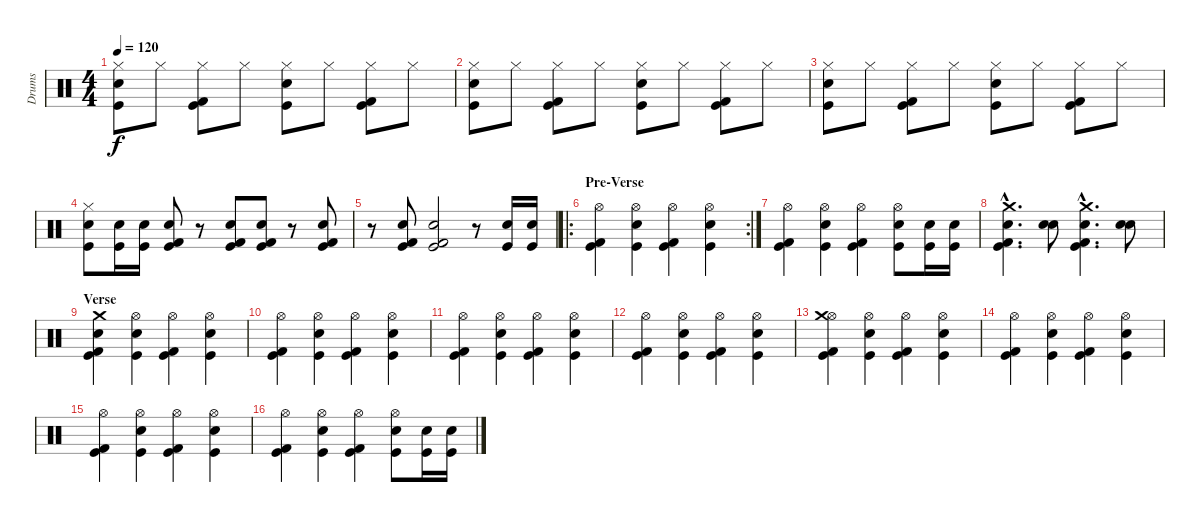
\track ("Drums" "Drums") {instrument percussion}
\staff {score}
\articulation defaults
\ts (4 4)
\tempo 120
\clef neutral
\ks c
("Hi-Hat (closed)" "Kick (hit)" "Snare (hit) 2").8{dy f} "Hi-Hat (closed)".8 ("Hi-Hat (closed)" "Kick (hit)" "Kick (hit) 2").8 "Hi-Hat (closed)".8 ("Hi-Hat (closed)" "Kick (hit)" "Snare (hit) 2").8 "Hi-Hat (closed)".8 ("Hi-Hat (closed)" "Kick (hit)" "Kick (hit) 2").8 "Hi-Hat (closed)".8 |
("Hi-Hat (closed)" "Kick (hit)" "Snare (hit) 2").8 "Hi-Hat (closed)".8 ("Hi-Hat (closed)" "Kick (hit)" "Kick (hit) 2").8 "Hi-Hat (closed)".8 ("Hi-Hat (closed)" "Kick (hit)" "Snare (hit) 2").8 "Hi-Hat (closed)".8 ("Hi-Hat (closed)" "Kick (hit)" "Kick (hit) 2").8 "Hi-Hat (closed)".8 |
("Hi-Hat (closed)" "Kick (hit)" "Snare (hit) 2").8 "Hi-Hat (closed)".8 ("Hi-Hat (closed)" "Kick (hit)" "Kick (hit) 2").8 "Hi-Hat (closed)".8 ("Hi-Hat (closed)" "Kick (hit)" "Snare (hit) 2").8 "Hi-Hat (closed)".8 ("Hi-Hat (closed)" "Kick (hit)" "Kick (hit) 2").8 "Hi-Hat (closed)".8 |
("Hi-Hat (closed)" "Kick (hit)" "Snare (hit) 2").8 ("Kick (hit)" "Snare (hit) 2").16 ("Kick (hit)" "Snare (hit) 2").16 ("Kick (hit)" "Kick (hit) 2" "Snare (hit) 2").8 r.8 ("Kick (hit)" "Kick (hit) 2" "Snare (hit) 2").8 ("Kick (hit)" "Kick (hit) 2" "Snare (hit) 2").8 r.8 ("Kick (hit)" "Kick (hit) 2" "Snare (hit) 2").8 |
r.8 ("Kick (hit)" "Kick (hit) 2" "Snare (hit) 2").8 ("Kick (hit)" "Kick (hit) 2" "Snare (hit) 2").2 r.8 ("Kick (hit)" "Snare (hit) 2").16 ("Kick (hit)" "Snare (hit) 2").16 |
\ro
\rc 2
\section ("" "Pre-Verse")
("Hi-Hat (open)" "Kick (hit)" "Kick (hit) 2").4 ("Hi-Hat (open)" "Kick (hit)" "Snare (hit) 2").4 ("Hi-Hat (open)" "Kick (hit)" "Kick (hit) 2").4 ("Hi-Hat (open)" "Kick (hit)" "Snare (hit) 2").4 |
("Hi-Hat (open)" "Kick (hit)" "Kick (hit) 2").4 ("Hi-Hat (open)" "Kick (hit)" "Snare (hit) 2").4 ("Hi-Hat (open)" "Kick (hit)" "Kick (hit) 2").4 ("Hi-Hat (open)" "Kick (hit)" "Snare (hit) 2").8 ("Kick (hit)" "Snare (hit) 2").16 ("Kick (hit)" "Snare (hit) 2").16 |
("Kick (hit)"{hac} "Kick (hit) 2"{hac} "Snare (hit) 2"{hac} "Crash medium (hit)"{hac}).4{d} ("Snare (hit) 2" "Electric Snare (hit)").8 ("Kick (hit)"{hac} "Kick (hit) 2"{hac} "Snare (hit) 2"{hac} "Crash medium (hit)"{hac}).4{d} ("Snare (hit) 2" "Electric Snare (hit)").8 |
\section ("" "Verse")
("Kick (hit)" "Kick (hit) 2" "Snare (hit) 2" "Crash medium (hit)").4 ("Hi-Hat (open)" "Kick (hit)" "Snare (hit) 2").4 ("Hi-Hat (open)" "Kick (hit)" "Kick (hit) 2").4 ("Hi-Hat (open)" "Kick (hit)" "Snare (hit) 2").4 |
("Hi-Hat (open)" "Kick (hit)" "Kick (hit) 2").4 ("Hi-Hat (open)" "Kick (hit)" "Snare (hit) 2").4 ("Hi-Hat (open)" "Kick (hit)" "Kick (hit) 2").4 ("Hi-Hat (open)" "Kick (hit)" "Snare (hit) 2").4 |
("Hi-Hat (open)" "Kick (hit)" "Kick (hit) 2").4 ("Hi-Hat (open)" "Kick (hit)" "Snare (hit) 2").4 ("Hi-Hat (open)" "Kick (hit)" "Kick (hit) 2").4 ("Hi-Hat (open)" "Kick (hit)" "Snare (hit) 2").4 |
("Hi-Hat (open)" "Kick (hit)" "Kick (hit) 2").4 ("Hi-Hat (open)" "Kick (hit)" "Snare (hit) 2").4 ("Hi-Hat (open)" "Kick (hit)" "Kick (hit) 2").4 ("Hi-Hat (open)" "Kick (hit)" "Snare (hit) 2").4 |
("Hi-Hat (open)" "Kick (hit)" "Kick (hit) 2" "Crash medium (hit)").4 ("Hi-Hat (open)" "Kick (hit)" "Snare (hit) 2").4 ("Hi-Hat (open)" "Kick (hit)" "Kick (hit) 2").4 ("Hi-Hat (open)" "Kick (hit)" "Snare (hit) 2").4 |
("Hi-Hat (open)" "Kick (hit)" "Kick (hit) 2").4 ("Hi-Hat (open)" "Kick (hit)" "Snare (hit) 2").4 ("Hi-Hat (open)" "Kick (hit)" "Kick (hit) 2").4 ("Hi-Hat (open)" "Kick (hit)" "Snare (hit) 2").4 |
("Hi-Hat (open)" "Kick (hit)" "Kick (hit) 2").4 ("Hi-Hat (open)" "Kick (hit)" "Snare (hit) 2").4 ("Hi-Hat (open)" "Kick (hit)" "Kick (hit) 2").4 ("Hi-Hat (open)" "Kick (hit)" "Snare (hit) 2").4 |
("Hi-Hat (open)" "Kick (hit)" "Kick (hit) 2").4 ("Hi-Hat (open)" "Kick (hit)" "Snare (hit) 2").4 ("Hi-Hat (open)" "Kick (hit)" "Kick (hit) 2").4 ("Hi-Hat (open)" "Kick (hit)" "Snare (hit) 2").8 ("Kick (hit)" "Snare (hit) 2").16 ("Kick (hit)" "Snare (hit) 2").16
